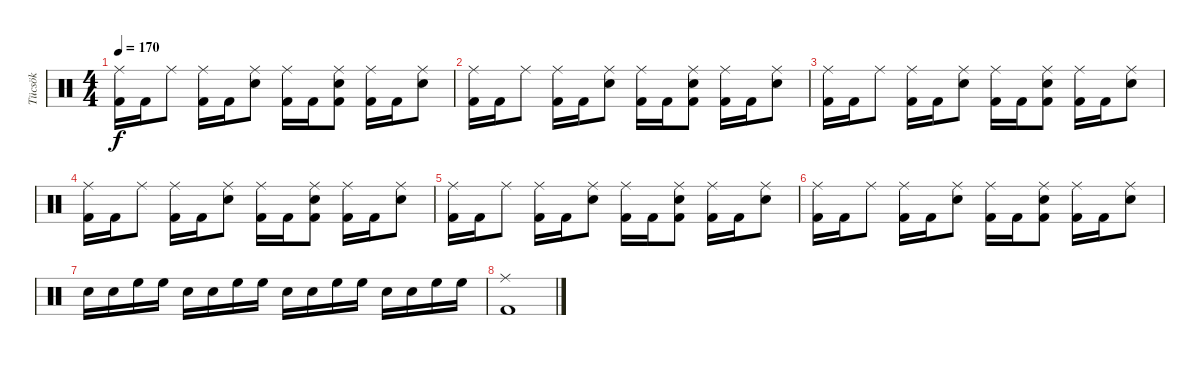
\track ("Tücsök" "Tücsök") {instrument percussion}
\staff {score}
\articulation defaults
\ts (4 4)
\tempo 170
\clef neutral
\ks c
("Ride (middle)" "Kick (hit) 2").16{dy f} "Kick (hit) 2".16 "Ride (middle)".8 ("Ride (middle)" "Kick (hit) 2").16 "Kick (hit) 2".16 ("Ride (middle)" "Electric Snare (hit)").8 ("Ride (middle)" "Kick (hit) 2").16 "Kick (hit) 2".16 ("Ride (middle)" "Electric Snare (hit)" "Kick (hit) 2").8 ("Ride (middle)" "Kick (hit) 2").16 "Kick (hit) 2".16 ("Ride (middle)" "Electric Snare (hit)").8 |
("Ride (middle)" "Kick (hit) 2").16 "Kick (hit) 2".16 "Ride (middle)".8 ("Ride (middle)" "Kick (hit) 2").16 "Kick (hit) 2".16 ("Ride (middle)" "Electric Snare (hit)").8 ("Ride (middle)" "Kick (hit) 2").16 "Kick (hit) 2".16 ("Ride (middle)" "Electric Snare (hit)" "Kick (hit) 2").8 ("Ride (middle)" "Kick (hit) 2").16 "Kick (hit) 2".16 ("Ride (middle)" "Electric Snare (hit)").8 |
("Ride (middle)" "Kick (hit) 2").16 "Kick (hit) 2".16 "Ride (middle)".8 ("Ride (middle)" "Kick (hit) 2").16 "Kick (hit) 2".16 ("Ride (middle)" "Electric Snare (hit)").8 ("Ride (middle)" "Kick (hit) 2").16 "Kick (hit) 2".16 ("Ride (middle)" "Electric Snare (hit)" "Kick (hit) 2").8 ("Ride (middle)" "Kick (hit) 2").16 "Kick (hit) 2".16 ("Ride (middle)" "Electric Snare (hit)").8 |
("Ride (middle)" "Kick (hit) 2").16 "Kick (hit) 2".16 "Ride (middle)".8 ("Ride (middle)" "Kick (hit) 2").16 "Kick (hit) 2".16 ("Ride (middle)" "Electric Snare (hit)").8 ("Ride (middle)" "Kick (hit) 2").16 "Kick (hit) 2".16 ("Ride (middle)" "Electric Snare (hit)" "Kick (hit) 2").8 ("Ride (middle)" "Kick (hit) 2").16 "Kick (hit) 2".16 ("Ride (middle)" "Electric Snare (hit)").8 |
("Ride (middle)" "Kick (hit) 2").16 "Kick (hit) 2".16 "Ride (middle)".8 ("Ride (middle)" "Kick (hit) 2").16 "Kick (hit) 2".16 ("Ride (middle)" "Electric Snare (hit)").8 ("Ride (middle)" "Kick (hit) 2").16 "Kick (hit) 2".16 ("Ride (middle)" "Electric Snare (hit)" "Kick (hit) 2").8 ("Ride (middle)" "Kick (hit) 2").16 "Kick (hit) 2".16 ("Ride (middle)" "Electric Snare (hit)").8 |
("Ride (middle)" "Kick (hit) 2").16 "Kick (hit) 2".16 "Ride (middle)".8 ("Ride (middle)" "Kick (hit) 2").16 "Kick (hit) 2".16 ("Ride (middle)" "Electric Snare (hit)").8 ("Ride (middle)" "Kick (hit) 2").16 "Kick (hit) 2".16 ("Ride (middle)" "Electric Snare (hit)" "Kick (hit) 2").8 ("Ride (middle)" "Kick (hit) 2").16 "Kick (hit) 2".16 ("Ride (middle)" "Electric Snare (hit)").8 |
"Electric Snare (hit)".16 "Electric Snare (hit)".16 "High Floor Tom (hit)".16 "High Floor Tom (hit)".16 "Electric Snare (hit)".16 "Electric Snare (hit)".16 "High Floor Tom (hit)".16 "High Floor Tom (hit)".16 "Electric Snare (hit)".16 "Electric Snare (hit)".16 "High Floor Tom (hit)".16 "High Floor Tom (hit)".16 "Electric Snare (hit)".16 "Electric Snare (hit)".16 "High Floor Tom (hit)".16 "High Floor Tom (hit)".16 |
("Ride (middle)" "Kick (hit) 2").1
